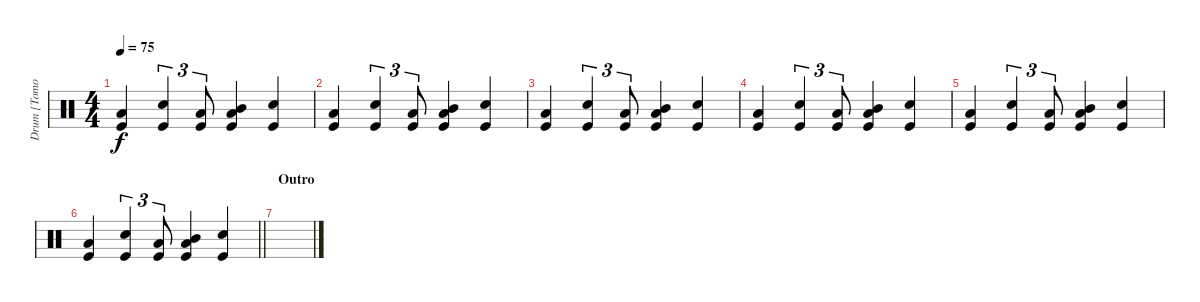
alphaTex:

\track ("Drum [Tomoya]" "Drum [Tomo") {instrument percussion}
\staff {score}
\articulation defaults
\ts (4 4)
\tempo 75
\clef neutral
\ks c
("Low Floor Tom (hit)" "Kick (hit)").4{dy f} ("Snare (hit) 2" "Kick (hit)").4{tu (3 2)} ("Low Floor Tom (hit)" "Kick (hit)").8{tu (3 2)} ("Low Tom (hit)" "Mid Tom (hit)" "Kick (hit)").4 ("Snare (hit) 2" "Kick (hit)").4 |
("Low Floor Tom (hit)" "Kick (hit)").4 ("Snare (hit) 2" "Kick (hit)").4{tu (3 2)} ("Low Floor Tom (hit)" "Kick (hit)").8{tu (3 2)} ("Low Tom (hit)" "Mid Tom (hit)" "Kick (hit)").4 ("Snare (hit) 2" "Kick (hit)").4 |
("Low Floor Tom (hit)" "Kick (hit)").4 ("Snare (hit) 2" "Kick (hit)").4{tu (3 2)} ("Low Floor Tom (hit)" "Kick (hit)").8{tu (3 2)} ("Low Tom (hit)" "Mid Tom (hit)" "Kick (hit)").4 ("Snare (hit) 2" "Kick (hit)").4 |
("Low Floor Tom (hit)" "Kick (hit)").4 ("Snare (hit) 2" "Kick (hit)").4{tu (3 2)} ("Low Floor Tom (hit)" "Kick (hit)").8{tu (3 2)} ("Low Tom (hit)" "Mid Tom (hit)" "Kick (hit)").4 ("Snare (hit) 2" "Kick (hit)").4 |
("Low Floor Tom (hit)" "Kick (hit)").4 ("Snare (hit) 2" "Kick (hit)").4{tu (3 2)} ("Low Floor Tom (hit)" "Kick (hit)").8{tu (3 2)} ("Low Tom (hit)" "Mid Tom (hit)" "Kick (hit)").4 ("Snare (hit) 2" "Kick (hit)").4 |
\barLineRight lightlight
("Low Floor Tom (hit)" "Kick (hit)").4 ("Snare (hit) 2" "Kick (hit)").4{tu (3 2)} ("Low Floor Tom (hit)" "Kick (hit)").8{tu (3 2)} ("Low Tom (hit)" "Mid Tom (hit)" "Kick (hit)").4 ("Snare (hit) 2" "Kick (hit)").4 |
\section ("" "Outro")
